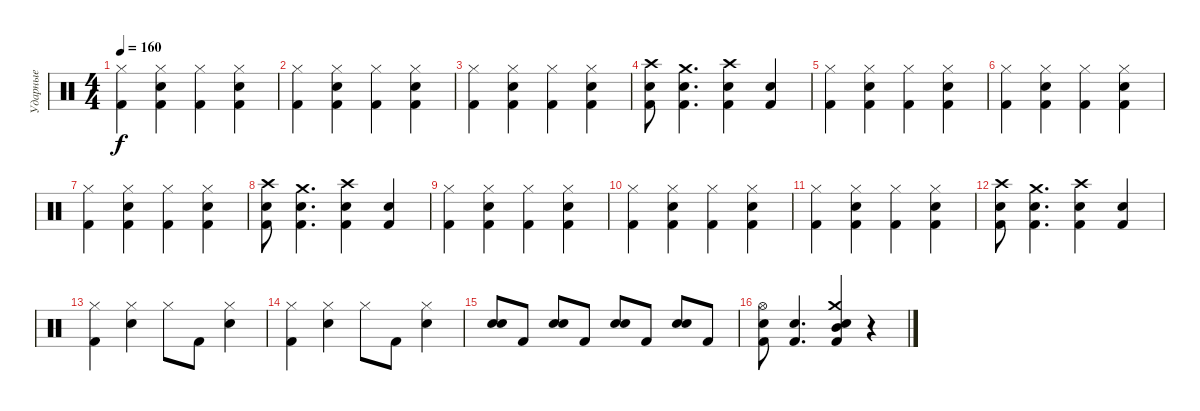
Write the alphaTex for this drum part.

\track ("Ударные" "Ударные") {instrument percussion}
\staff {score}
\articulation defaults
\ts (4 4)
\tempo 160
\clef neutral
\ks c
("Hi-Hat (closed)" "Kick (hit) 2").4{dy f} ("Hi-Hat (closed)" "Snare (hit) 2" "Kick (hit) 2").4 ("Hi-Hat (closed)" "Kick (hit) 2").4 ("Hi-Hat (closed)" "Snare (hit) 2" "Kick (hit) 2").4 |
("Hi-Hat (closed)" "Kick (hit) 2").4 ("Hi-Hat (closed)" "Snare (hit) 2" "Kick (hit) 2").4 ("Hi-Hat (closed)" "Kick (hit) 2").4 ("Hi-Hat (closed)" "Snare (hit) 2" "Kick (hit) 2").4 |
("Hi-Hat (closed)" "Kick (hit) 2").4 ("Hi-Hat (closed)" "Snare (hit) 2" "Kick (hit) 2").4 ("Hi-Hat (closed)" "Kick (hit) 2").4 ("Hi-Hat (closed)" "Snare (hit) 2" "Kick (hit) 2").4 |
("Crash high (hit)" "Snare (hit) 2" "Kick (hit) 2").8 ("Crash medium (hit)" "Snare (hit) 2" "Kick (hit) 2").4{d} ("Crash high (hit)" "Snare (hit) 2" "Kick (hit) 2").4 ("Snare (hit) 2" "Kick (hit) 2").4 |
("Hi-Hat (closed)" "Kick (hit) 2").4 ("Hi-Hat (closed)" "Snare (hit) 2" "Kick (hit) 2").4 ("Hi-Hat (closed)" "Kick (hit) 2").4 ("Hi-Hat (closed)" "Snare (hit) 2" "Kick (hit) 2").4 |
("Hi-Hat (closed)" "Kick (hit) 2").4 ("Hi-Hat (closed)" "Snare (hit) 2" "Kick (hit) 2").4 ("Hi-Hat (closed)" "Kick (hit) 2").4 ("Hi-Hat (closed)" "Snare (hit) 2" "Kick (hit) 2").4 |
("Hi-Hat (closed)" "Kick (hit) 2").4 ("Hi-Hat (closed)" "Snare (hit) 2" "Kick (hit) 2").4 ("Hi-Hat (closed)" "Kick (hit) 2").4 ("Hi-Hat (closed)" "Snare (hit) 2" "Kick (hit) 2").4 |
("Crash high (hit)" "Snare (hit) 2" "Kick (hit) 2").8 ("Crash medium (hit)" "Snare (hit) 2" "Kick (hit) 2").4{d} ("Crash high (hit)" "Snare (hit) 2" "Kick (hit) 2").4 ("Snare (hit) 2" "Kick (hit) 2").4 |
("Hi-Hat (closed)" "Kick (hit) 2").4 ("Hi-Hat (closed)" "Snare (hit) 2" "Kick (hit) 2").4 ("Hi-Hat (closed)" "Kick (hit) 2").4 ("Hi-Hat (closed)" "Snare (hit) 2" "Kick (hit) 2").4 |
("Hi-Hat (closed)" "Kick (hit) 2").4 ("Hi-Hat (closed)" "Snare (hit) 2" "Kick (hit) 2").4 ("Hi-Hat (closed)" "Kick (hit) 2").4 ("Hi-Hat (closed)" "Snare (hit) 2" "Kick (hit) 2").4 |
("Hi-Hat (closed)" "Kick (hit) 2").4 ("Hi-Hat (closed)" "Snare (hit) 2" "Kick (hit) 2").4 ("Hi-Hat (closed)" "Kick (hit) 2").4 ("Hi-Hat (closed)" "Snare (hit) 2" "Kick (hit) 2").4 |
("Crash high (hit)" "Snare (hit) 2" "Kick (hit) 2").8 ("Crash medium (hit)" "Snare (hit) 2" "Kick (hit) 2").4{d} ("Crash high (hit)" "Snare (hit) 2" "Kick (hit) 2").4 ("Snare (hit) 2" "Kick (hit) 2").4 |
("Hi-Hat (closed)" "Kick (hit) 2").4 ("Hi-Hat (closed)" "Snare (hit) 2").4 "Hi-Hat (closed)".8 "Kick (hit) 2".8 ("Hi-Hat (closed)" "Snare (hit) 2").4 |
("Hi-Hat (closed)" "Kick (hit) 2").4 ("Hi-Hat (closed)" "Snare (hit) 2").4 "Hi-Hat (closed)".8 "Kick (hit) 2".8 ("Hi-Hat (closed)" "Snare (hit) 2").4 |
("Snare (hit) 2" "Snare (hit) 2").8{bd 240} "Kick (hit) 2".8 ("Snare (hit) 2" "Snare (hit) 2").8{bd 240} "Kick (hit) 2".8 ("Snare (hit) 2" "Snare (hit) 2").8{bd 240} "Kick (hit) 2".8 ("Snare (hit) 2" "Snare (hit) 2").8{bd 240} "Kick (hit) 2".8 |
("Hi-Hat (open)" "Snare (hit) 2" "Kick (hit) 2").8 ("Snare (hit) 2" "Kick (hit) 2").4{d} ("Crash medium (hit)" "Mid Tom (hit)" "Snare (hit) 2" "Kick (hit) 2").4 r.4
